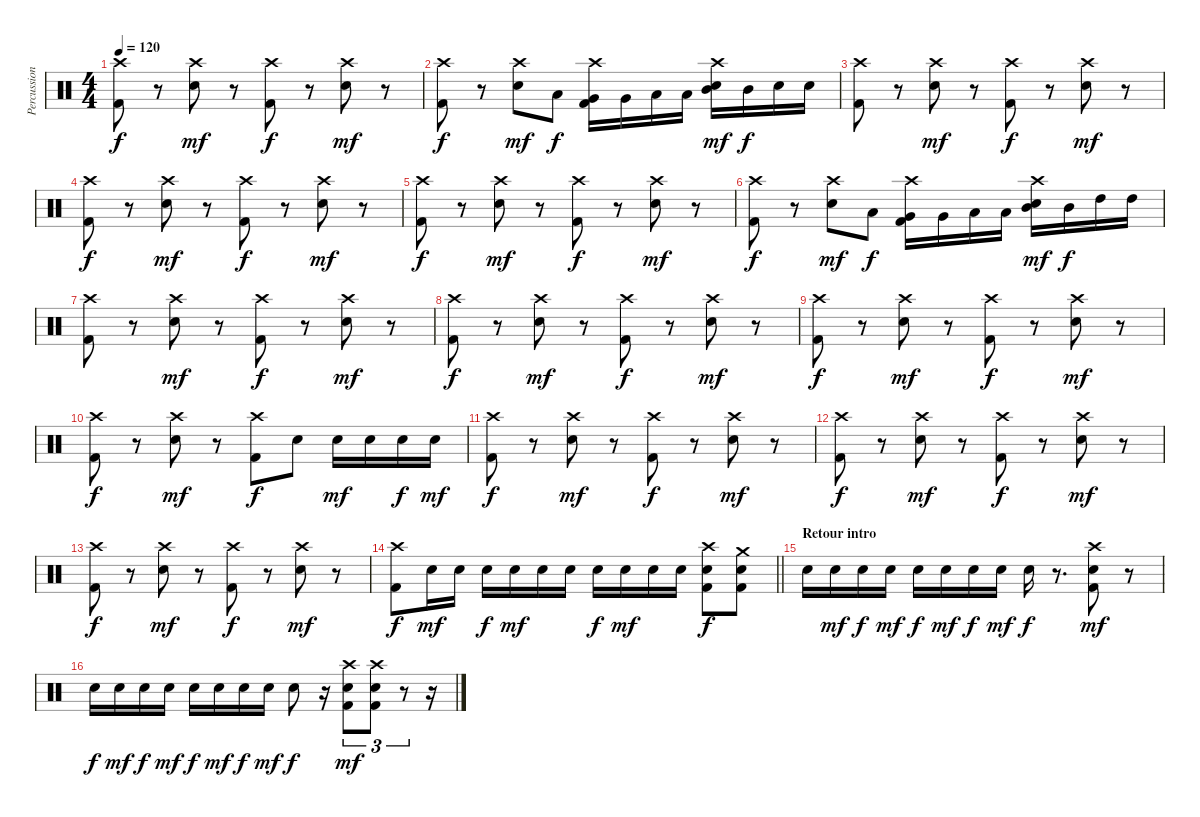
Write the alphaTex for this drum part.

\track ("Percussions" "Percussion") {instrument percussion}
\staff
\articulation defaults
\ts (4 4)
\tempo 120
\clef neutral
\ks c
("Crash high (hit)" "Kick (hit) 2").8{dy f} r.8 ("Crash high (hit)" "Electric Snare (hit)").8{dy mf} r.8 ("Crash high (hit)" "Kick (hit) 2").8{dy f} r.8 ("Crash high (hit)" "Electric Snare (hit)").8{dy mf} r.8 |
("Crash high (hit)" "Kick (hit) 2").8{dy f} r.8 ("Crash high (hit)" "Electric Snare (hit)").8{dy mf} "Low Floor Tom (hit)".8{dy f} ("Crash high (hit)" "Kick (hit) 2" "Very Low Tom (hit)").16 "Very Low Tom (hit)".16 "Low Tom (hit)".16 "Low Tom (hit)".16 ("Crash high (hit)" "Electric Snare (hit)" "Mid Tom (hit)").16{dy mf} "Mid Tom (hit)".16{dy f} "Electric Snare (hit)".16 "Electric Snare (hit)".16 |
("Crash high (hit)" "Kick (hit) 2").8 r.8 ("Crash high (hit)" "Electric Snare (hit)").8{dy mf} r.8 ("Crash high (hit)" "Kick (hit) 2").8{dy f} r.8 ("Crash high (hit)" "Electric Snare (hit)").8{dy mf} r.8 |
("Crash high (hit)" "Kick (hit) 2").8{dy f} r.8 ("Crash high (hit)" "Electric Snare (hit)").8{dy mf} r.8 ("Crash high (hit)" "Kick (hit) 2").8{dy f} r.8 ("Crash high (hit)" "Electric Snare (hit)").8{dy mf} r.8 |
("Crash high (hit)" "Kick (hit) 2").8{dy f} r.8 ("Crash high (hit)" "Electric Snare (hit)").8{dy mf} r.8 ("Crash high (hit)" "Kick (hit) 2").8{dy f} r.8 ("Crash high (hit)" "Electric Snare (hit)").8{dy mf} r.8 |
("Crash high (hit)" "Kick (hit) 2").8{dy f} r.8 ("Crash high (hit)" "Electric Snare (hit)").8{dy mf} "Low Floor Tom (hit)".8{dy f} ("Crash high (hit)" "Kick (hit) 2" "Very Low Tom (hit)").16 "Very Low Tom (hit)".16 "Low Tom (hit)".16 "Low Tom (hit)".16 ("Crash high (hit)" "Electric Snare (hit)" "Mid Tom (hit)").16{dy mf} "Mid Tom (hit)".16{dy f} "High Tom (hit)".16 "High Tom (hit)".16 |
("Crash high (hit)" "Kick (hit) 2").8 r.8 ("Crash high (hit)" "Electric Snare (hit)").8{dy mf} r.8 ("Crash high (hit)" "Kick (hit) 2").8{dy f} r.8 ("Crash high (hit)" "Electric Snare (hit)").8{dy mf} r.8 |
("Crash high (hit)" "Kick (hit) 2").8{dy f} r.8 ("Crash high (hit)" "Electric Snare (hit)").8{dy mf} r.8 ("Crash high (hit)" "Kick (hit) 2").8{dy f} r.8 ("Crash high (hit)" "Electric Snare (hit)").8{dy mf} r.8 |
("Crash high (hit)" "Kick (hit) 2").8{dy f} r.8 ("Crash high (hit)" "Electric Snare (hit)").8{dy mf} r.8 ("Crash high (hit)" "Kick (hit) 2").8{dy f} r.8 ("Crash high (hit)" "Electric Snare (hit)").8{dy mf} r.8 |
("Crash high (hit)" "Kick (hit) 2").8{dy f} r.8 ("Crash high (hit)" "Electric Snare (hit)").8{dy mf} r.8 ("Crash high (hit)" "Kick (hit) 2").8{dy f} "Electric Snare (hit)".8 "Electric Snare (hit)".16{dy mf} "Electric Snare (hit)".16 "Electric Snare (hit)".16{dy f} "Electric Snare (hit)".16{dy mf} |
("Crash high (hit)" "Kick (hit) 2").8{dy f} r.8 ("Crash high (hit)" "Electric Snare (hit)").8{dy mf} r.8 ("Crash high (hit)" "Kick (hit) 2").8{dy f} r.8 ("Crash high (hit)" "Electric Snare (hit)").8{dy mf} r.8 |
("Crash high (hit)" "Kick (hit) 2").8{dy f} r.8 ("Crash high (hit)" "Electric Snare (hit)").8{dy mf} r.8 ("Crash high (hit)" "Kick (hit) 2").8{dy f} r.8 ("Crash high (hit)" "Electric Snare (hit)").8{dy mf} r.8 |
("Crash high (hit)" "Kick (hit) 2").8{dy f} r.8 ("Crash high (hit)" "Electric Snare (hit)").8{dy mf} r.8 ("Crash high (hit)" "Kick (hit) 2").8{dy f} r.8 ("Crash high (hit)" "Electric Snare (hit)").8{dy mf} r.8 |
\barLineRight lightlight
("Crash high (hit)" "Kick (hit) 2").8{dy f} "Electric Snare (hit)".16{dy mf} "Electric Snare (hit)".16 "Electric Snare (hit)".16{dy f} "Electric Snare (hit)".16{dy mf} "Electric Snare (hit)".16 "Electric Snare (hit)".16 "Electric Snare (hit)".16{dy f} "Electric Snare (hit)".16{dy mf} "Electric Snare (hit)".16 "Electric Snare (hit)".16 ("Crash high (hit)" "Electric Snare (hit)" "Kick (hit) 2").8{dy f} ("Crash medium (hit)" "Electric Snare (hit)" "Kick (hit) 2").8 |
\section ("" "Retour intro")
"Electric Snare (hit)".16 "Electric Snare (hit)".16{dy mf} "Electric Snare (hit)".16{dy f} "Electric Snare (hit)".16{dy mf} "Electric Snare (hit)".16{dy f} "Electric Snare (hit)".16{dy mf} "Electric Snare (hit)".16{dy f} "Electric Snare (hit)".16{dy mf} "Electric Snare (hit)".16{dy f} r.8{d} ("Crash high (hit)" "Electric Snare (hit)" "Kick (hit) 2").8{dy mf} r.8 |
"Electric Snare (hit)".16{dy f} "Electric Snare (hit)".16{dy mf} "Electric Snare (hit)".16{dy f} "Electric Snare (hit)".16{dy mf} "Electric Snare (hit)".16{dy f} "Electric Snare (hit)".16{dy mf} "Electric Snare (hit)".16{dy f} "Electric Snare (hit)".16{dy mf} "Electric Snare (hit)".8{dy f} r.16 ("Crash high (hit)" "Electric Snare (hit)" "Kick (hit) 2").8{tu (3 2) dy mf} ("Crash high (hit)" "Electric Snare (hit)" "Kick (hit) 2").8{tu (3 2)} r.8{tu (3 2)} r.16
